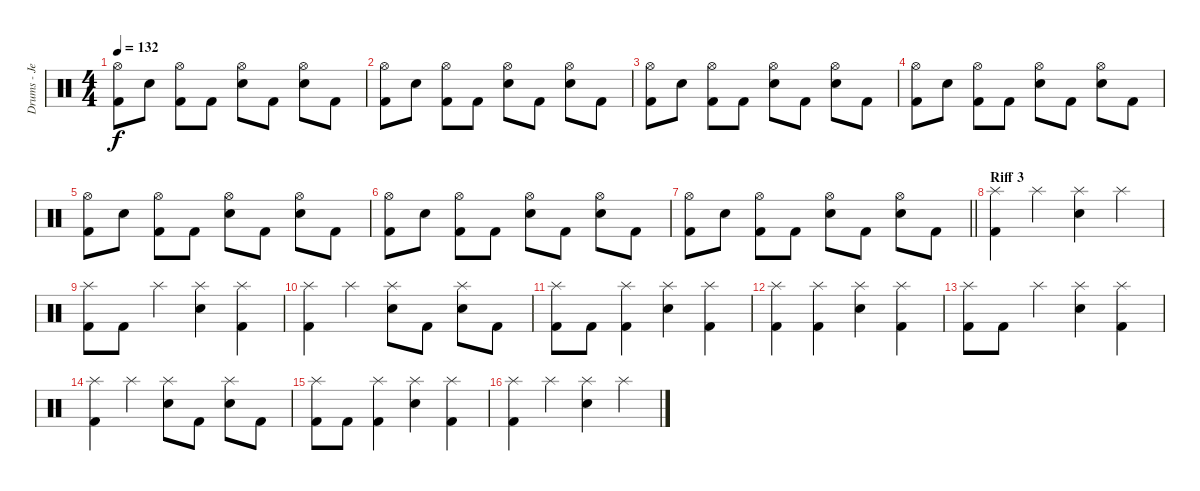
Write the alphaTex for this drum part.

\track ("Drums - Jess Margera" "Drums - Je") {instrument percussion}
\staff {score}
\articulation defaults
\ts (4 4)
\tempo 132
\clef neutral
\ks c
("Hi-Hat (open)" "Kick (hit) 2").8{dy f} "Electric Snare (hit)".8 ("Hi-Hat (open)" "Kick (hit) 2").8 "Kick (hit) 2".8 ("Hi-Hat (open)" "Electric Snare (hit)").8 "Kick (hit) 2".8 ("Hi-Hat (open)" "Electric Snare (hit)").8 "Kick (hit) 2".8 |
("Hi-Hat (open)" "Kick (hit) 2").8 "Electric Snare (hit)".8 ("Hi-Hat (open)" "Kick (hit) 2").8 "Kick (hit) 2".8 ("Hi-Hat (open)" "Electric Snare (hit)").8 "Kick (hit) 2".8 ("Hi-Hat (open)" "Electric Snare (hit)").8 "Kick (hit) 2".8 |
("Hi-Hat (open)" "Kick (hit) 2").8 "Electric Snare (hit)".8 ("Hi-Hat (open)" "Kick (hit) 2").8 "Kick (hit) 2".8 ("Hi-Hat (open)" "Electric Snare (hit)").8 "Kick (hit) 2".8 ("Hi-Hat (open)" "Electric Snare (hit)").8 "Kick (hit) 2".8 |
("Hi-Hat (open)" "Kick (hit) 2").8 "Electric Snare (hit)".8 ("Hi-Hat (open)" "Kick (hit) 2").8 "Kick (hit) 2".8 ("Hi-Hat (open)" "Electric Snare (hit)").8 "Kick (hit) 2".8 ("Hi-Hat (open)" "Electric Snare (hit)").8 "Kick (hit) 2".8 |
("Hi-Hat (open)" "Kick (hit) 2").8 "Electric Snare (hit)".8 ("Hi-Hat (open)" "Kick (hit) 2").8 "Kick (hit) 2".8 ("Hi-Hat (open)" "Electric Snare (hit)").8 "Kick (hit) 2".8 ("Hi-Hat (open)" "Electric Snare (hit)").8 "Kick (hit) 2".8 |
("Hi-Hat (open)" "Kick (hit) 2").8 "Electric Snare (hit)".8 ("Hi-Hat (open)" "Kick (hit) 2").8 "Kick (hit) 2".8 ("Hi-Hat (open)" "Electric Snare (hit)").8 "Kick (hit) 2".8 ("Hi-Hat (open)" "Electric Snare (hit)").8 "Kick (hit) 2".8 |
\barLineRight lightlight
("Hi-Hat (open)" "Kick (hit) 2").8 "Electric Snare (hit)".8 ("Hi-Hat (open)" "Kick (hit) 2").8 "Kick (hit) 2".8 ("Hi-Hat (open)" "Electric Snare (hit)").8 "Kick (hit) 2".8 ("Hi-Hat (open)" "Electric Snare (hit)").8 "Kick (hit) 2".8 |
\section ("" "Riff 3")
("Splash (hit)" "Kick (hit) 2").4 "Splash (hit)".4 ("Splash (hit)" "Electric Snare (hit)").4 "Splash (hit)".4 |
("Splash (hit)" "Kick (hit) 2").8 "Kick (hit) 2".8 "Splash (hit)".4 ("Splash (hit)" "Electric Snare (hit)").4 ("Splash (hit)" "Kick (hit) 2").4 |
("Splash (hit)" "Kick (hit) 2").4 "Splash (hit)".4 ("Splash (hit)" "Electric Snare (hit)").8 "Kick (hit) 2".8 ("Splash (hit)" "Electric Snare (hit)").8 "Kick (hit) 2".8 |
("Splash (hit)" "Kick (hit) 2").8 "Kick (hit) 2".8 ("Splash (hit)" "Kick (hit) 2").4 ("Splash (hit)" "Electric Snare (hit)").4 ("Splash (hit)" "Kick (hit) 2").4 |
("Splash (hit)" "Kick (hit) 2").4 ("Splash (hit)" "Kick (hit) 2").4 ("Splash (hit)" "Electric Snare (hit)").4 ("Splash (hit)" "Kick (hit) 2").4 |
("Splash (hit)" "Kick (hit) 2").8 "Kick (hit) 2".8 "Splash (hit)".4 ("Splash (hit)" "Electric Snare (hit)").4 ("Splash (hit)" "Kick (hit) 2").4 |
("Splash (hit)" "Kick (hit) 2").4 "Splash (hit)".4 ("Splash (hit)" "Electric Snare (hit)").8 "Kick (hit) 2".8 ("Splash (hit)" "Electric Snare (hit)").8 "Kick (hit) 2".8 |
("Splash (hit)" "Kick (hit) 2").8 "Kick (hit) 2".8 ("Splash (hit)" "Kick (hit) 2").4 ("Splash (hit)" "Electric Snare (hit)").4 ("Splash (hit)" "Kick (hit) 2").4 |
("Splash (hit)" "Kick (hit) 2").4 "Splash (hit)".4 ("Splash (hit)" "Electric Snare (hit)").4 "Splash (hit)".4
